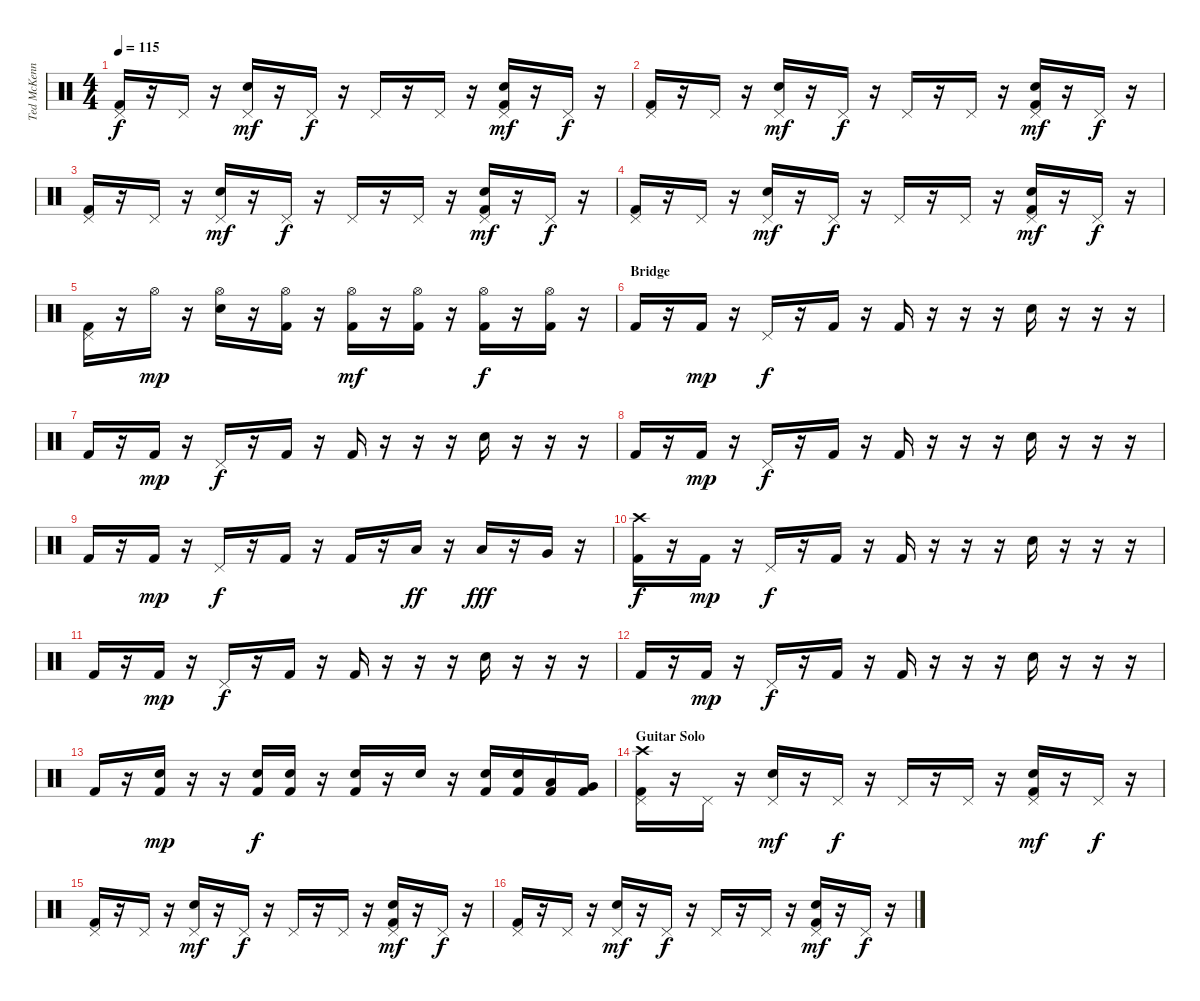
\track ("Ted McKenna" "Ted McKenn") {instrument percussion}
\staff {score}
\articulation defaults
\ts (4 4)
\tempo 115
\clef neutral
\ks c
("Pedal Hi-Hat (hit)" "Kick (hit) 2").16{dy f} r.16 "Pedal Hi-Hat (hit)".16 r.16 ("Electric Snare (hit)" "Pedal Hi-Hat (hit)").16{dy mf} r.16 "Pedal Hi-Hat (hit)".16{dy f} r.16 "Pedal Hi-Hat (hit)".16 r.16 "Pedal Hi-Hat (hit)".16 r.16 ("Electric Snare (hit)" "Pedal Hi-Hat (hit)" "Kick (hit) 2").16{dy mf} r.16 "Pedal Hi-Hat (hit)".16{dy f} r.16 |
("Pedal Hi-Hat (hit)" "Kick (hit) 2").16 r.16 "Pedal Hi-Hat (hit)".16 r.16 ("Electric Snare (hit)" "Pedal Hi-Hat (hit)").16{dy mf} r.16 "Pedal Hi-Hat (hit)".16{dy f} r.16 "Pedal Hi-Hat (hit)".16 r.16 "Pedal Hi-Hat (hit)".16 r.16 ("Electric Snare (hit)" "Pedal Hi-Hat (hit)" "Kick (hit) 2").16{dy mf} r.16 "Pedal Hi-Hat (hit)".16{dy f} r.16 |
("Pedal Hi-Hat (hit)" "Kick (hit) 2").16 r.16 "Pedal Hi-Hat (hit)".16 r.16 ("Electric Snare (hit)" "Pedal Hi-Hat (hit)").16{dy mf} r.16 "Pedal Hi-Hat (hit)".16{dy f} r.16 "Pedal Hi-Hat (hit)".16 r.16 "Pedal Hi-Hat (hit)".16 r.16 ("Electric Snare (hit)" "Pedal Hi-Hat (hit)" "Kick (hit) 2").16{dy mf} r.16 "Pedal Hi-Hat (hit)".16{dy f} r.16 |
("Pedal Hi-Hat (hit)" "Kick (hit) 2").16 r.16 "Pedal Hi-Hat (hit)".16 r.16 ("Electric Snare (hit)" "Pedal Hi-Hat (hit)").16{dy mf} r.16 "Pedal Hi-Hat (hit)".16{dy f} r.16 "Pedal Hi-Hat (hit)".16 r.16 "Pedal Hi-Hat (hit)".16 r.16 ("Electric Snare (hit)" "Pedal Hi-Hat (hit)" "Kick (hit) 2").16{dy mf} r.16 "Pedal Hi-Hat (hit)".16{dy f} r.16 |
("Pedal Hi-Hat (hit)" "Kick (hit) 2").16 r.16 "Hi-Hat (open)".16{dy mp} r.16 ("Electric Snare (hit)" "Hi-Hat (open)").16 r.16 ("Hi-Hat (open)" "Kick (hit) 2").16 r.16 ("Hi-Hat (open)" "Kick (hit) 2").16{dy mf} r.16 ("Hi-Hat (open)" "Kick (hit) 2").16 r.16 ("Hi-Hat (open)" "Kick (hit) 2").16{dy f} r.16 ("Hi-Hat (open)" "Kick (hit) 2").16 r.16 |
\section ("" "Bridge")
"Kick (hit) 2".16 r.16 "Kick (hit) 2".16{dy mp} r.16 "Pedal Hi-Hat (hit)".16{dy f} r.16 "Kick (hit) 2".16 r.16 "Kick (hit) 2".16 r.16 r.16 r.16 "Snare (hit) 2".16 r.16 r.16 r.16 |
"Kick (hit) 2".16 r.16 "Kick (hit) 2".16{dy mp} r.16 "Pedal Hi-Hat (hit)".16{dy f} r.16 "Kick (hit) 2".16 r.16 "Kick (hit) 2".16 r.16 r.16 r.16 "Snare (hit) 2".16 r.16 r.16 r.16 |
"Kick (hit) 2".16 r.16 "Kick (hit) 2".16{dy mp} r.16 "Pedal Hi-Hat (hit)".16{dy f} r.16 "Kick (hit) 2".16 r.16 "Kick (hit) 2".16 r.16 r.16 r.16 "Snare (hit) 2".16 r.16 r.16 r.16 |
"Kick (hit) 2".16 r.16 "Kick (hit) 2".16{dy mp} r.16 "Pedal Hi-Hat (hit)".16{dy f} r.16 "Kick (hit) 2".16 r.16 "Kick (hit) 2".16 r.16 "Low Floor Tom (hit)".16{dy ff} r.16 "Low Tom (hit)".16{dy fff} r.16 "Very Low Tom (hit)".16 r.16 |
("Crash high (hit)" "Kick (hit) 2").16{dy f} r.16 "Kick (hit) 2".16{dy mp} r.16 "Pedal Hi-Hat (hit)".16{dy f} r.16 "Kick (hit) 2".16 r.16 "Kick (hit) 2".16 r.16 r.16 r.16 "Snare (hit) 2".16 r.16 r.16 r.16 |
"Kick (hit) 2".16 r.16 "Kick (hit) 2".16{dy mp} r.16 "Pedal Hi-Hat (hit)".16{dy f} r.16 "Kick (hit) 2".16 r.16 "Kick (hit) 2".16 r.16 r.16 r.16 "Snare (hit) 2".16 r.16 r.16 r.16 |
"Kick (hit) 2".16 r.16 "Kick (hit) 2".16{dy mp} r.16 "Pedal Hi-Hat (hit)".16{dy f} r.16 "Kick (hit) 2".16 r.16 "Kick (hit) 2".16 r.16 r.16 r.16 "Snare (hit) 2".16 r.16 r.16 r.16 |
"Kick (hit) 2".16 r.16 ("Electric Snare (hit)" "Kick (hit) 2").16{dy mp} r.16 r.16 ("Electric Snare (hit)" "Kick (hit) 2").16{dy f} ("Electric Snare (hit)" "Kick (hit) 2").16 r.16 ("Electric Snare (hit)" "Kick (hit) 2").16 r.16 "Electric Snare (hit)".16 r.16 ("Electric Snare (hit)" "Kick (hit) 2").16 ("Electric Snare (hit)" "Kick (hit) 2").16 ("Low Tom (hit)" "Kick (hit) 2").16 ("Very Low Tom (hit)" "Kick (hit) 2").16 |
\section ("" "Guitar Solo")
("Crash high (hit)" "Pedal Hi-Hat (hit)" "Kick (hit) 2").16 r.16 "Pedal Hi-Hat (hit)".16 r.16 ("Electric Snare (hit)" "Pedal Hi-Hat (hit)").16{dy mf} r.16 "Pedal Hi-Hat (hit)".16{dy f} r.16 "Pedal Hi-Hat (hit)".16 r.16 "Pedal Hi-Hat (hit)".16 r.16 ("Electric Snare (hit)" "Pedal Hi-Hat (hit)" "Kick (hit) 2").16{dy mf} r.16 "Pedal Hi-Hat (hit)".16{dy f} r.16 |
("Pedal Hi-Hat (hit)" "Kick (hit) 2").16 r.16 "Pedal Hi-Hat (hit)".16 r.16 ("Electric Snare (hit)" "Pedal Hi-Hat (hit)").16{dy mf} r.16 "Pedal Hi-Hat (hit)".16{dy f} r.16 "Pedal Hi-Hat (hit)".16 r.16 "Pedal Hi-Hat (hit)".16 r.16 ("Electric Snare (hit)" "Pedal Hi-Hat (hit)" "Kick (hit) 2").16{dy mf} r.16 "Pedal Hi-Hat (hit)".16{dy f} r.16 |
("Pedal Hi-Hat (hit)" "Kick (hit) 2").16 r.16 "Pedal Hi-Hat (hit)".16 r.16 ("Electric Snare (hit)" "Pedal Hi-Hat (hit)").16{dy mf} r.16 "Pedal Hi-Hat (hit)".16{dy f} r.16 "Pedal Hi-Hat (hit)".16 r.16 "Pedal Hi-Hat (hit)".16 r.16 ("Electric Snare (hit)" "Pedal Hi-Hat (hit)" "Kick (hit) 2").16{dy mf} r.16 "Pedal Hi-Hat (hit)".16{dy f} r.16
